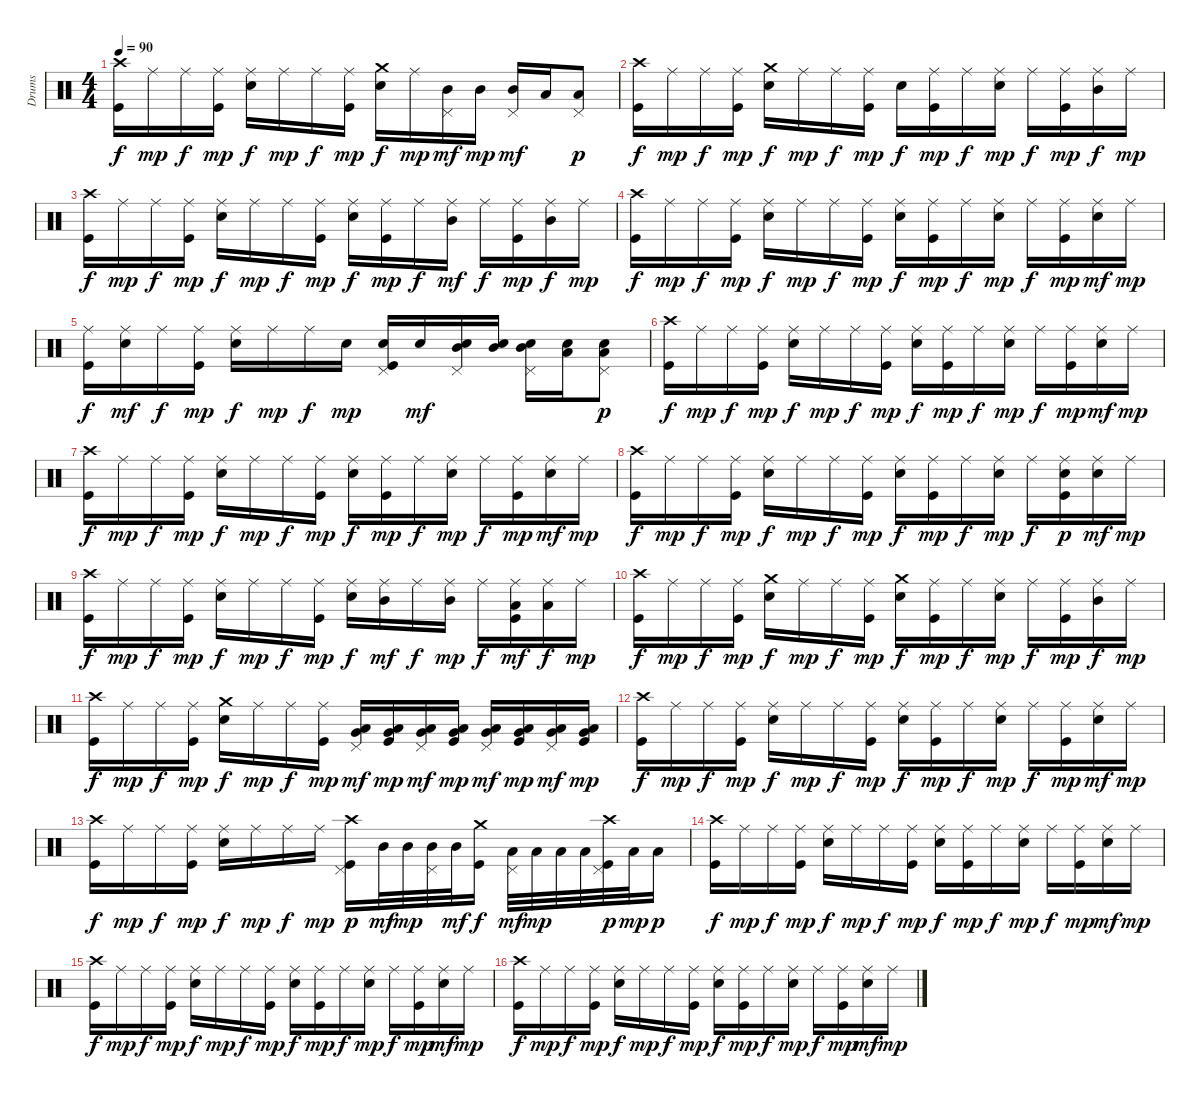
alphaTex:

\track ("Drums" "Drums") {instrument percussion}
\staff {score}
\articulation defaults
\ts (4 4)
\tempo 90
\clef neutral
\ks c
("Crash high (hit)" "Kick (hit)").16{dy f} "Ride (middle)".16{dy mp} "Ride (middle)".16{dy f} ("Ride (middle)" "Kick (hit)").16{dy mp} ("Ride (middle)" "Snare (hit) 2").16{dy f} "Ride (middle)".16{dy mp} "Ride (middle)".16{dy f} ("Ride (middle)" "Kick (hit)").16{dy mp} ("Crash medium (hit)" "Snare (hit) 2").16{dy f} "Ride (middle)".16{dy mp} ("Pedal Hi-Hat (hit)" "Mid Tom (hit)").16{dy mf} "Mid Tom (hit)".16{dy mp} ("Pedal Hi-Hat (hit)" "Mid Tom (hit)").16{dy mf} "Low Tom (hit)".16 ("Pedal Hi-Hat (hit)" "Low Tom (hit)").8{dy p} |
("Crash high (hit)" "Kick (hit)").16{dy f} "Ride (middle)".16{dy mp} "Ride (middle)".16{dy f} ("Ride (middle)" "Kick (hit)").16{dy mp} ("Crash medium (hit)" "Snare (hit) 2").16{dy f} "Ride (middle)".16{dy mp} "Ride (middle)".16{dy f} ("Ride (middle)" "Kick (hit)").16{dy mp} "Snare (hit) 2".16{dy f} ("Ride (middle)" "Kick (hit)").16{dy mp} "Ride (middle)".16{dy f} ("Ride (middle)" "Snare (hit) 2").16{dy mp} "Ride (middle)".16{dy f} ("Ride (middle)" "Kick (hit)").16{dy mp} ("Ride (middle)" "Mid Tom (hit)").16{dy f} "Ride (middle)".16{dy mp} |
("Crash high (hit)" "Kick (hit)").16{dy f} "Ride (middle)".16{dy mp} "Ride (middle)".16{dy f} ("Ride (middle)" "Kick (hit)").16{dy mp} ("Ride (middle)" "Snare (hit) 2").16{dy f} "Ride (middle)".16{dy mp} "Ride (middle)".16{dy f} ("Ride (middle)" "Kick (hit)").16{dy mp} ("Ride (middle)" "Snare (hit) 2").16{dy f} ("Ride (middle)" "Kick (hit)").16{dy mp} "Ride (middle)".16{dy f} ("Ride (middle)" "Mid Tom (hit)").16{dy mf} "Ride (middle)".16{dy f} ("Ride (middle)" "Kick (hit)").16{dy mp} ("Ride (middle)" "Mid Tom (hit)").16{dy f} "Ride (middle)".16{dy mp} |
("Crash high (hit)" "Kick (hit)").16{dy f} "Ride (middle)".16{dy mp} "Ride (middle)".16{dy f} ("Ride (middle)" "Kick (hit)").16{dy mp} ("Ride (middle)" "Snare (hit) 2").16{dy f} "Ride (middle)".16{dy mp} "Ride (middle)".16{dy f} ("Ride (middle)" "Kick (hit)").16{dy mp} ("Ride (middle)" "Snare (hit) 2").16{dy f} ("Ride (middle)" "Kick (hit)").16{dy mp} "Ride (middle)".16{dy f} ("Ride (middle)" "Snare (hit) 2").16{dy mp} "Ride (middle)".16{dy f} ("Ride (middle)" "Kick (hit)").16{dy mp} ("Ride (middle)" "Snare (hit) 2").16{dy mf} "Ride (middle)".16{dy mp} |
("Ride (middle)" "Kick (hit)").16{dy f} ("Ride (middle)" "Snare (hit) 2").16{dy mf} "Ride (middle)".16{dy f} ("Ride (middle)" "Kick (hit)").16{dy mp} ("Ride (middle)" "Snare (hit) 2").16{dy f} "Ride (middle)".16{dy mp} "Ride (middle)".16{dy f} "Snare (hit) 2".16{dy mp} ("Pedal Hi-Hat (hit)" "Snare (hit) 2" "Kick (hit)").16 "Snare (hit) 2".16{dy mf} ("Pedal Hi-Hat (hit)" "Mid Tom (hit)" "Snare (hit) 2").16 ("Mid Tom (hit)" "Snare (hit) 2").16 ("Pedal Hi-Hat (hit)" "Mid Tom (hit)" "Snare (hit) 2").16 ("Low Tom (hit)" "Snare (hit) 2").16 ("Pedal Hi-Hat (hit)" "Low Tom (hit)" "Snare (hit) 2").8{dy p} |
("Crash high (hit)" "Kick (hit)").16{dy f} "Ride (middle)".16{dy mp} "Ride (middle)".16{dy f} ("Ride (middle)" "Kick (hit)").16{dy mp} ("Ride (middle)" "Snare (hit) 2").16{dy f} "Ride (middle)".16{dy mp} "Ride (middle)".16{dy f} ("Ride (middle)" "Kick (hit)").16{dy mp} ("Ride (middle)" "Snare (hit) 2").16{dy f} ("Ride (middle)" "Kick (hit)").16{dy mp} "Ride (middle)".16{dy f} ("Ride (middle)" "Snare (hit) 2").16{dy mp} "Ride (middle)".16{dy f} ("Ride (middle)" "Kick (hit)").16{dy mp} ("Ride (middle)" "Snare (hit) 2").16{dy mf} "Ride (middle)".16{dy mp} |
("Crash high (hit)" "Kick (hit)").16{dy f} "Ride (middle)".16{dy mp} "Ride (middle)".16{dy f} ("Ride (middle)" "Kick (hit)").16{dy mp} ("Ride (middle)" "Snare (hit) 2").16{dy f} "Ride (middle)".16{dy mp} "Ride (middle)".16{dy f} ("Ride (middle)" "Kick (hit)").16{dy mp} ("Ride (middle)" "Snare (hit) 2").16{dy f} ("Ride (middle)" "Kick (hit)").16{dy mp} "Ride (middle)".16{dy f} ("Ride (middle)" "Snare (hit) 2").16{dy mp} "Ride (middle)".16{dy f} ("Ride (middle)" "Kick (hit)").16{dy mp} ("Ride (middle)" "Snare (hit) 2").16{dy mf} "Ride (middle)".16{dy mp} |
("Crash high (hit)" "Kick (hit)").16{dy f} "Ride (middle)".16{dy mp} "Ride (middle)".16{dy f} ("Ride (middle)" "Kick (hit)").16{dy mp} ("Ride (middle)" "Snare (hit) 2").16{dy f} "Ride (middle)".16{dy mp} "Ride (middle)".16{dy f} ("Ride (middle)" "Kick (hit)").16{dy mp} ("Ride (middle)" "Snare (hit) 2").16{dy f} ("Ride (middle)" "Kick (hit)").16{dy mp} "Ride (middle)".16{dy f} ("Ride (middle)" "Snare (hit) 2").16{dy mp} "Ride (middle)".16{dy f} ("Ride (middle)" "Snare (hit) 2" "Kick (hit)").16{dy p} ("Ride (middle)" "Snare (hit) 2").16{dy mf} "Ride (middle)".16{dy mp} |
("Crash high (hit)" "Kick (hit)").16{dy f} "Ride (middle)".16{dy mp} "Ride (middle)".16{dy f} ("Ride (middle)" "Kick (hit)").16{dy mp} ("Ride (middle)" "Snare (hit) 2").16{dy f} "Ride (middle)".16{dy mp} "Ride (middle)".16{dy f} ("Ride (middle)" "Kick (hit)").16{dy mp} ("Ride (middle)" "Snare (hit) 2").16{dy f} ("Ride (middle)" "Mid Tom (hit)").16{dy mf} "Ride (middle)".16{dy f} ("Ride (middle)" "Mid Tom (hit)").16{dy mp} "Ride (middle)".16{dy f} ("Ride (middle)" "Low Tom (hit)" "Kick (hit)").16{dy mf} ("Ride (middle)" "Low Tom (hit)").16{dy f} "Ride (middle)".16{dy mp} |
("Crash high (hit)" "Kick (hit)").16{dy f} "Ride (middle)".16{dy mp} "Ride (middle)".16{dy f} ("Ride (middle)" "Kick (hit)").16{dy mp} ("Crash medium (hit)" "Snare (hit) 2").16{dy f} "Ride (middle)".16{dy mp} "Ride (middle)".16{dy f} ("Ride (middle)" "Kick (hit)").16{dy mp} ("Crash medium (hit)" "Snare (hit) 2").16{dy f} ("Ride (middle)" "Kick (hit)").16{dy mp} "Ride (middle)".16{dy f} ("Ride (middle)" "Snare (hit) 2").16{dy mp} "Ride (middle)".16{dy f} ("Ride (middle)" "Kick (hit)").16{dy mp} ("Ride (middle)" "Mid Tom (hit)").16{dy f} "Ride (middle)".16{dy mp} |
("Crash high (hit)" "Kick (hit)").16{dy f} "Ride (middle)".16{dy mp} "Ride (middle)".16{dy f} ("Ride (middle)" "Kick (hit)").16{dy mp} ("Crash medium (hit)" "Snare (hit) 2").16{dy f} "Ride (middle)".16{dy mp} "Ride (middle)".16{dy f} ("Ride (middle)" "Kick (hit)").16{dy mp} ("Pedal Hi-Hat (hit)" "Very Low Tom (hit)" "Low Tom (hit)").16{dy mf} ("Very Low Tom (hit)" "Low Tom (hit)" "Kick (hit)").16{dy mp} ("Pedal Hi-Hat (hit)" "Very Low Tom (hit)" "Low Tom (hit)").16{dy mf} ("Very Low Tom (hit)" "Low Tom (hit)" "Kick (hit)").16{dy mp} ("Pedal Hi-Hat (hit)" "Very Low Tom (hit)" "Low Tom (hit)").16{dy mf} ("Very Low Tom (hit)" "Low Tom (hit)" "Kick (hit)").16{dy mp} ("Pedal Hi-Hat (hit)" "Very Low Tom (hit)" "Low Tom (hit)").16{dy mf} ("Very Low Tom (hit)" "Low Tom (hit)" "Kick (hit)").16{dy mp} |
("Crash high (hit)" "Kick (hit)").16{dy f} "Ride (middle)".16{dy mp} "Ride (middle)".16{dy f} ("Ride (middle)" "Kick (hit)").16{dy mp} ("Ride (middle)" "Snare (hit) 2").16{dy f} "Ride (middle)".16{dy mp} "Ride (middle)".16{dy f} ("Ride (middle)" "Kick (hit)").16{dy mp} ("Ride (middle)" "Snare (hit) 2").16{dy f} ("Ride (middle)" "Kick (hit)").16{dy mp} "Ride (middle)".16{dy f} ("Ride (middle)" "Snare (hit) 2").16{dy mp} "Ride (middle)".16{dy f} ("Ride (middle)" "Kick (hit)").16{dy mp} ("Ride (middle)" "Snare (hit) 2").16{dy mf} "Ride (middle)".16{dy mp} |
("Crash high (hit)" "Kick (hit)").16{dy f} "Ride (middle)".16{dy mp} "Ride (middle)".16{dy f} ("Ride (middle)" "Kick (hit)").16{dy mp} ("Ride (middle)" "Snare (hit) 2").16{dy f} "Ride (middle)".16{dy mp} "Ride (middle)".16{dy f} "Ride (middle)".16{dy mp} ("Crash high (hit)" "Pedal Hi-Hat (hit)" "Kick (hit)").16{dy p} "Mid Tom (hit)".32{dy mf} "Mid Tom (hit)".32{dy mp} ("Pedal Hi-Hat (hit)" "Mid Tom (hit)").32 "Mid Tom (hit)".32{dy mf} ("Crash medium (hit)" "Kick (hit)").16{dy f} ("Pedal Hi-Hat (hit)" "Low Tom (hit)").32{dy mf} "Low Tom (hit)".32{dy mp} "Low Tom (hit)".32 "Low Tom (hit)".32 ("Crash high (hit)" "Pedal Hi-Hat (hit)" "Kick (hit)").32{dy p} "Low Tom (hit)".32{dy mp} "Low Tom (hit)".16{dy p} |
("Crash high (hit)" "Kick (hit)").16{dy f} "Ride (middle)".16{dy mp} "Ride (middle)".16{dy f} ("Ride (middle)" "Kick (hit)").16{dy mp} ("Ride (middle)" "Snare (hit) 2").16{dy f} "Ride (middle)".16{dy mp} "Ride (middle)".16{dy f} ("Ride (middle)" "Kick (hit)").16{dy mp} ("Ride (middle)" "Snare (hit) 2").16{dy f} ("Ride (middle)" "Kick (hit)").16{dy mp} "Ride (middle)".16{dy f} ("Ride (middle)" "Snare (hit) 2").16{dy mp} "Ride (middle)".16{dy f} ("Ride (middle)" "Kick (hit)").16{dy mp} ("Ride (middle)" "Snare (hit) 2").16{dy mf} "Ride (middle)".16{dy mp} |
("Crash high (hit)" "Kick (hit)").16{dy f} "Ride (middle)".16{dy mp} "Ride (middle)".16{dy f} ("Ride (middle)" "Kick (hit)").16{dy mp} ("Ride (middle)" "Snare (hit) 2").16{dy f} "Ride (middle)".16{dy mp} "Ride (middle)".16{dy f} ("Ride (middle)" "Kick (hit)").16{dy mp} ("Ride (middle)" "Snare (hit) 2").16{dy f} ("Ride (middle)" "Kick (hit)").16{dy mp} "Ride (middle)".16{dy f} ("Ride (middle)" "Snare (hit) 2").16{dy mp} "Ride (middle)".16{dy f} ("Ride (middle)" "Kick (hit)").16{dy mp} ("Ride (middle)" "Snare (hit) 2").16{dy mf} "Ride (middle)".16{dy mp} |
("Crash high (hit)" "Kick (hit)").16{dy f} "Ride (middle)".16{dy mp} "Ride (middle)".16{dy f} ("Ride (middle)" "Kick (hit)").16{dy mp} ("Ride (middle)" "Snare (hit) 2").16{dy f} "Ride (middle)".16{dy mp} "Ride (middle)".16{dy f} ("Ride (middle)" "Kick (hit)").16{dy mp} ("Ride (middle)" "Snare (hit) 2").16{dy f} ("Ride (middle)" "Kick (hit)").16{dy mp} "Ride (middle)".16{dy f} ("Ride (middle)" "Snare (hit) 2").16{dy mp} "Ride (middle)".16{dy f} ("Ride (middle)" "Kick (hit)").16{dy mp} ("Ride (middle)" "Snare (hit) 2").16{dy mf} "Ride (middle)".16{dy mp}
